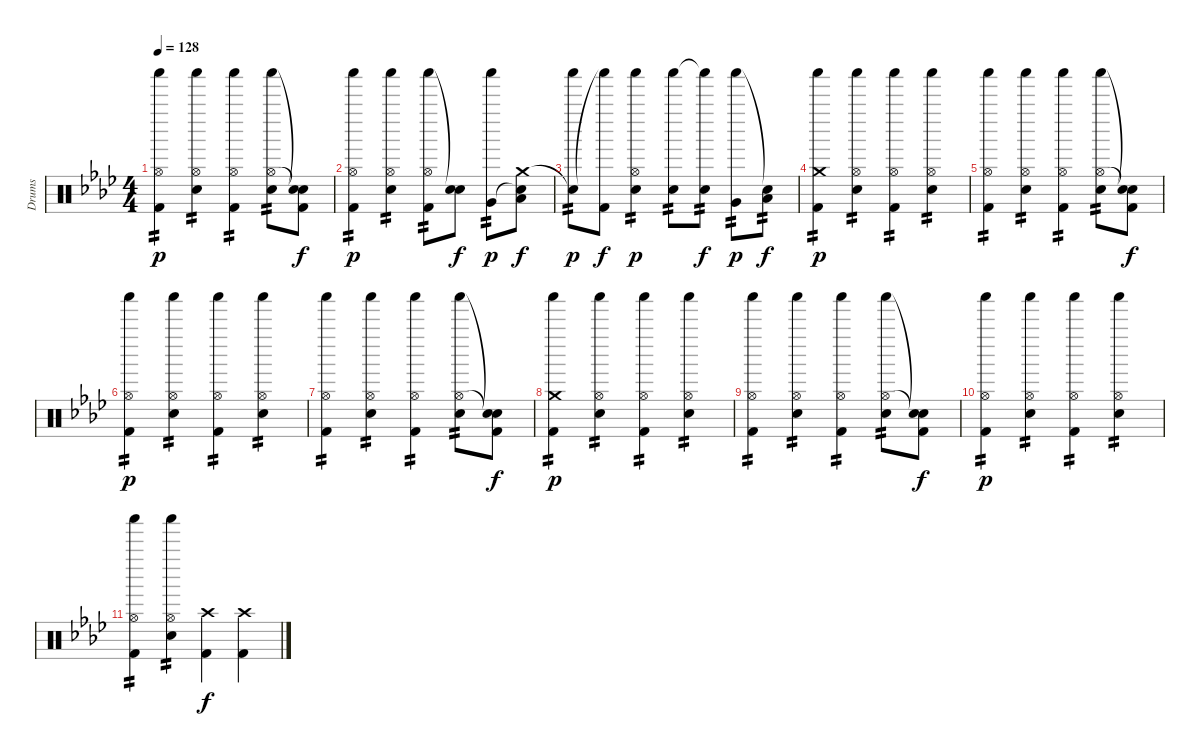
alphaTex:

\track ("Drums" "Drums") {instrument percussion}
\staff {score}
\articulation defaults
\ts (4 4)
\tempo 128
\clef neutral
\ks fminor
("Shaker (hit)" "Hi-Hat (open)" "Kick (hit) 2").4{tp 2 dy p} ("Shaker (hit)" "Hi-Hat (open)" "Electric Snare (hit)").4{tp 2} ("Shaker (hit)" "Hi-Hat (open)" "Kick (hit) 2").4{tp 2} ("Shaker (hit)" "Hi-Hat (open)" "Electric Snare (hit)").8{tp 2} ("Snare (hit)"{t} "Snare (hit)"{t} "Kick (hit) 2").8{dy f} |
("Shaker (hit)" "Hi-Hat (open)" "Kick (hit) 2").4{tp 2 dy p} ("Shaker (hit)" "Hi-Hat (open)" "Electric Snare (hit)").4{tp 2} ("Shaker (hit)" "Hi-Hat (open)" "Kick (hit) 2").8{tp 2} ("Snare (hit)"{t} "Electric Snare (hit)").8{dy f} ("Shaker (hit)" "Very Low Tom (hit)").8{tp 2 dy p} ("Crash medium (hit)" "Snare (hit)"{t} "Low Floor Tom (hit)").8{dy f} |
("Snare (hit)"{t} "Shaker (hit)").8{tp 2 dy p} ("Shaker (hit)"{t} "Kick (hit) 2").8{dy f} ("Shaker (hit)" "Hi-Hat (open)" "Electric Snare (hit)").4{tp 2 dy p} ("Shaker (hit)" "Electric Snare (hit)").8{tp 2} ("Shaker (hit)"{t} "Electric Snare (hit)").8{tp 2 dy f} ("Shaker (hit)" "Very Low Tom (hit)").8{tp 2 dy p} ("Snare (hit)"{t} "Low Floor Tom (hit)").8{tp 2 dy f} |
("Crash medium (hit)" "Shaker (hit)" "Kick (hit) 2").4{tp 2 dy p} ("Shaker (hit)" "Hi-Hat (open)" "Electric Snare (hit)").4{tp 2} ("Shaker (hit)" "Hi-Hat (open)" "Kick (hit) 2").4{tp 2} ("Shaker (hit)" "Hi-Hat (open)" "Electric Snare (hit)").4{tp 2} |
("Shaker (hit)" "Hi-Hat (open)" "Kick (hit) 2").4{tp 2} ("Shaker (hit)" "Hi-Hat (open)" "Electric Snare (hit)").4{tp 2} ("Shaker (hit)" "Hi-Hat (open)" "Kick (hit) 2").4{tp 2} ("Shaker (hit)" "Hi-Hat (open)" "Electric Snare (hit)").8{tp 2} ("Snare (hit)"{t} "Snare (hit)"{t} "Kick (hit) 2").8{dy f} |
("Shaker (hit)" "Hi-Hat (open)" "Kick (hit) 2").4{tp 2 dy p} ("Shaker (hit)" "Hi-Hat (open)" "Electric Snare (hit)").4{tp 2} ("Shaker (hit)" "Hi-Hat (open)" "Kick (hit) 2").4{tp 2} ("Shaker (hit)" "Hi-Hat (open)" "Electric Snare (hit)").4{tp 2} |
("Shaker (hit)" "Hi-Hat (open)" "Kick (hit) 2").4{tp 2} ("Shaker (hit)" "Hi-Hat (open)" "Electric Snare (hit)").4{tp 2} ("Shaker (hit)" "Hi-Hat (open)" "Kick (hit) 2").4{tp 2} ("Shaker (hit)" "Hi-Hat (open)" "Electric Snare (hit)").8{tp 2} ("Snare (hit)"{t} "Snare (hit)"{t} "Kick (hit) 2").8{dy f} |
("Crash medium (hit)" "Shaker (hit)" "Kick (hit) 2").4{tp 2 dy p} ("Shaker (hit)" "Hi-Hat (open)" "Electric Snare (hit)").4{tp 2} ("Shaker (hit)" "Hi-Hat (open)" "Kick (hit) 2").4{tp 2} ("Shaker (hit)" "Hi-Hat (open)" "Electric Snare (hit)").4{tp 2} |
("Shaker (hit)" "Hi-Hat (open)" "Kick (hit) 2").4{tp 2} ("Shaker (hit)" "Hi-Hat (open)" "Electric Snare (hit)").4{tp 2} ("Shaker (hit)" "Hi-Hat (open)" "Kick (hit) 2").4{tp 2} ("Shaker (hit)" "Hi-Hat (open)" "Electric Snare (hit)").8{tp 2} ("Snare (hit)"{t} "Snare (hit)"{t} "Kick (hit) 2").8{dy f} |
("Shaker (hit)" "Hi-Hat (open)" "Kick (hit) 2").4{tp 2 dy p} ("Shaker (hit)" "Hi-Hat (open)" "Electric Snare (hit)").4{tp 2} ("Shaker (hit)" "Hi-Hat (open)" "Kick (hit) 2").4{tp 2} ("Shaker (hit)" "Hi-Hat (open)" "Electric Snare (hit)").4{tp 2} |
("Shaker (hit)" "Hi-Hat (open)" "Kick (hit) 2").4{tp 2} ("Shaker (hit)" "Hi-Hat (open)" "Electric Snare (hit)").4{tp 2} ("Crash high (hit)" "Kick (hit) 2").4{dy f} ("Crash high (hit)" "Kick (hit) 2").4
